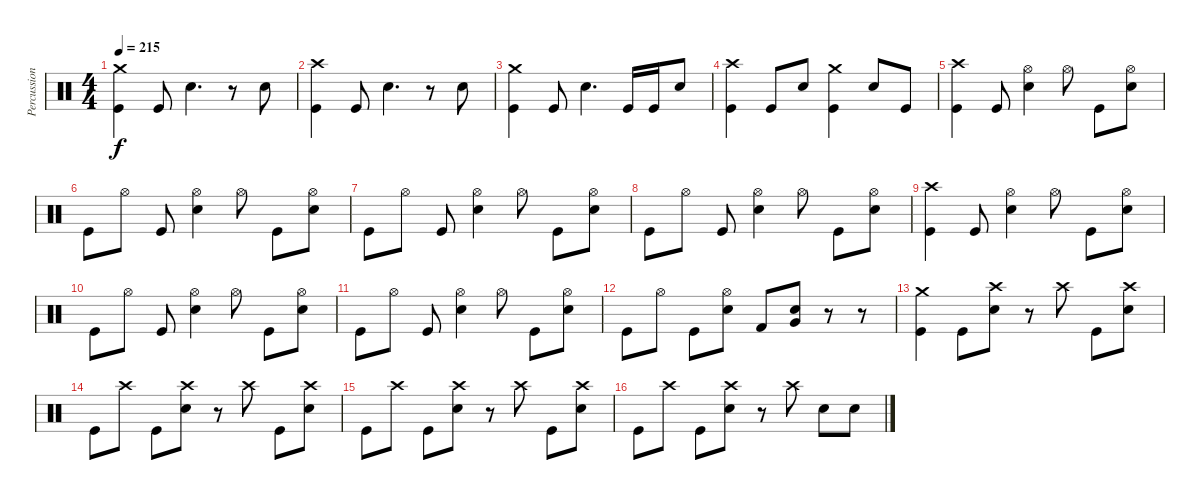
\track ("Percussion" "Percussion") {instrument percussion}
\staff {score}
\articulation defaults
\ts (4 4)
\tempo 215
\clef neutral
\ks c
("Crash medium (hit)" "Kick (hit)").4{dy f} "Kick (hit)".8 "Electric Snare (hit)".4{d} r.8 "Electric Snare (hit)".8 |
("Crash high (hit)" "Kick (hit)").4 "Kick (hit)".8 "Electric Snare (hit)".4{d} r.8 "Electric Snare (hit)".8 |
("Crash medium (hit)" "Kick (hit)").4 "Kick (hit)".8 "Electric Snare (hit)".4{d} "Kick (hit)".16 "Kick (hit)".16 "Electric Snare (hit)".8 |
("Crash high (hit)" "Kick (hit)").4 "Kick (hit)".8 "Electric Snare (hit)".8 ("Crash medium (hit)" "Kick (hit)").4 "Electric Snare (hit)".8 "Kick (hit)".8 |
("Crash high (hit)" "Kick (hit)").4 "Kick (hit)".8 ("Hi-Hat (open)" "Electric Snare (hit)").4 "Hi-Hat (open)".8 "Kick (hit)".8 ("Hi-Hat (open)" "Electric Snare (hit)").8 |
"Kick (hit)".8 "Hi-Hat (open)".8 "Kick (hit)".8 ("Hi-Hat (open)" "Electric Snare (hit)").4 "Hi-Hat (open)".8 "Kick (hit)".8 ("Hi-Hat (open)" "Electric Snare (hit)").8 |
"Kick (hit)".8 "Hi-Hat (open)".8 "Kick (hit)".8 ("Hi-Hat (open)" "Electric Snare (hit)").4 "Hi-Hat (open)".8 "Kick (hit)".8 ("Hi-Hat (open)" "Electric Snare (hit)").8 |
"Kick (hit)".8 "Hi-Hat (open)".8 "Kick (hit)".8 ("Hi-Hat (open)" "Electric Snare (hit)").4 "Hi-Hat (open)".8 "Kick (hit)".8 ("Hi-Hat (open)" "Electric Snare (hit)").8 |
("Crash high (hit)" "Kick (hit)").4 "Kick (hit)".8 ("Hi-Hat (open)" "Electric Snare (hit)").4 "Hi-Hat (open)".8 "Kick (hit)".8 ("Hi-Hat (open)" "Electric Snare (hit)").8 |
"Kick (hit)".8 "Hi-Hat (open)".8 "Kick (hit)".8 ("Hi-Hat (open)" "Electric Snare (hit)").4 "Hi-Hat (open)".8 "Kick (hit)".8 ("Hi-Hat (open)" "Electric Snare (hit)").8 |
"Kick (hit)".8 "Hi-Hat (open)".8 "Kick (hit)".8 ("Hi-Hat (open)" "Electric Snare (hit)").4 "Hi-Hat (open)".8 "Kick (hit)".8 ("Hi-Hat (open)" "Electric Snare (hit)").8 |
"Kick (hit)".8 "Hi-Hat (open)".8 "Kick (hit)".8 ("Hi-Hat (open)" "Electric Snare (hit)").8 "Kick (hit) 2".8 ("Very Low Tom (hit)" "Snare (hit) 2").8 r.8 r.8 |
("Crash medium (hit)" "Kick (hit)").4 "Kick (hit)".8 ("Crash high (hit)" "Electric Snare (hit)").8 r.8 "Crash high (hit)".8 "Kick (hit)".8 ("Crash high (hit)" "Electric Snare (hit)").8 |
"Kick (hit)".8 "Crash high (hit)".8 "Kick (hit)".8 ("Crash high (hit)" "Electric Snare (hit)").8 r.8 "Crash high (hit)".8 "Kick (hit)".8 ("Crash high (hit)" "Electric Snare (hit)").8 |
"Kick (hit)".8 "Crash high (hit)".8 "Kick (hit)".8 ("Crash high (hit)" "Electric Snare (hit)").8 r.8 "Crash high (hit)".8 "Kick (hit)".8 ("Crash high (hit)" "Electric Snare (hit)").8 |
"Kick (hit)".8 "Crash high (hit)".8 "Kick (hit)".8 ("Crash high (hit)" "Electric Snare (hit)").8 r.8 "Crash high (hit)".8 "Electric Snare (hit)".8 "Electric Snare (hit)".8
